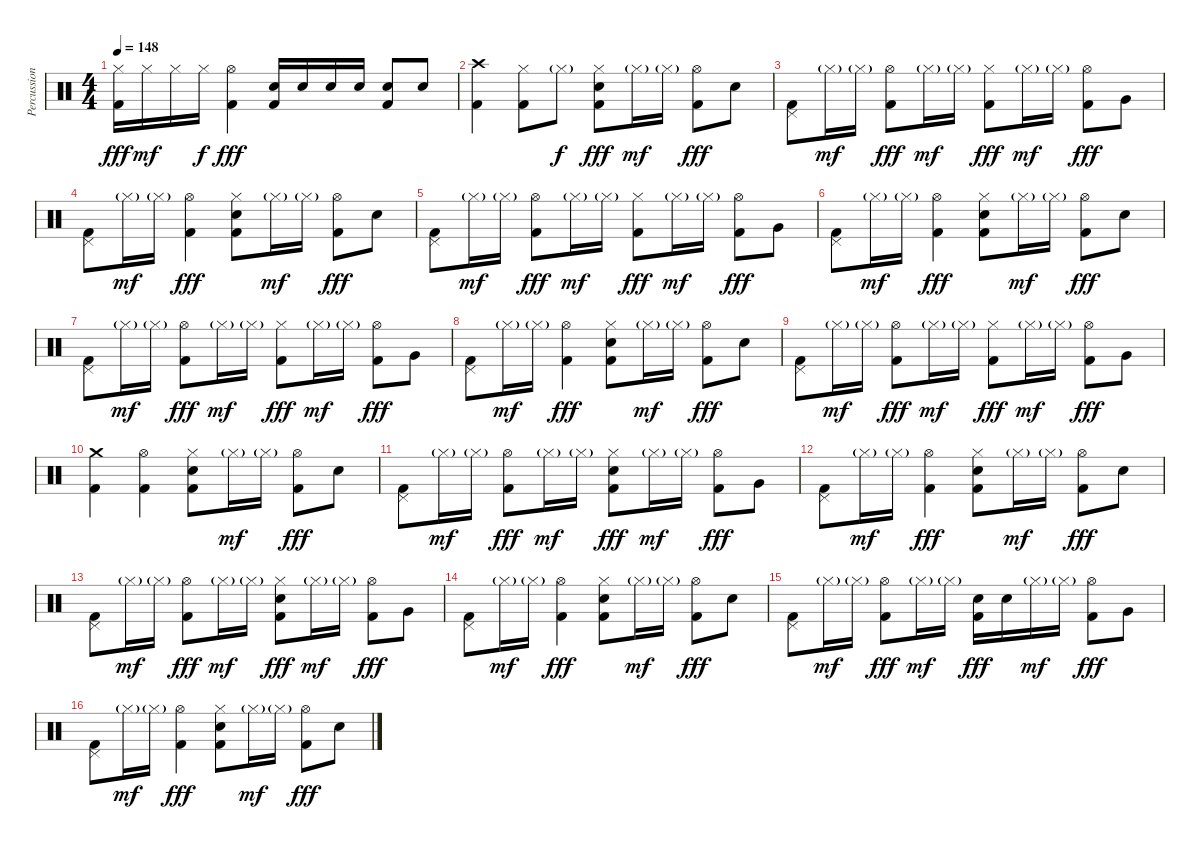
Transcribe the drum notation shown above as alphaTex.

\track ("Percussion" "Percussion") {instrument percussion}
\staff {score}
\articulation defaults
\ts (4 4)
\tempo 148
\clef neutral
\ks c
("Hi-Hat (closed)" "Kick (hit) 2").16{dy fff} "Hi-Hat (closed)".16{dy mf} "Hi-Hat (closed)".16 "Hi-Hat (closed)".16{dy f} ("Hi-Hat (open)" "Kick (hit) 2").4{dy fff} ("Kick (hit) 2" "Electric Snare (hit)").16 "Electric Snare (hit)".16 "Electric Snare (hit)".16 "Electric Snare (hit)".16 ("Kick (hit) 2" "Electric Snare (hit)").8 "Electric Snare (hit)".8 |
("Crash high (hit)" "Kick (hit) 2").4 ("Hi-Hat (closed)" "Kick (hit) 2").8 "Hi-Hat (closed)"{g}.8{dy f} ("Hi-Hat (closed)" "Kick (hit) 2" "Electric Snare (hit)").8{dy fff} "Hi-Hat (closed)"{g}.16{dy mf} "Hi-Hat (closed)"{g}.16 ("Hi-Hat (open)" "Kick (hit) 2").8{dy fff} "Electric Snare (hit)".8 |
("Pedal Hi-Hat (hit)" "Kick (hit) 2").8 "Hi-Hat (closed)"{g}.16{dy mf} "Hi-Hat (closed)"{g}.16 ("Hi-Hat (open)" "Kick (hit) 2").8{dy fff} "Hi-Hat (closed)"{g}.16{dy mf} "Hi-Hat (closed)"{g}.16 ("Hi-Hat (closed)" "Kick (hit) 2").8{dy fff} "Hi-Hat (closed)"{g}.16{dy mf} "Hi-Hat (closed)"{g}.16 ("Hi-Hat (open)" "Kick (hit) 2").8{dy fff} "Very Low Tom (hit)".8 |
("Pedal Hi-Hat (hit)" "Kick (hit) 2").8 "Hi-Hat (closed)"{g}.16{dy mf} "Hi-Hat (closed)"{g}.16 ("Hi-Hat (open)" "Kick (hit) 2").4{dy fff} ("Hi-Hat (closed)" "Kick (hit) 2" "Electric Snare (hit)").8 "Hi-Hat (closed)"{g}.16{dy mf} "Hi-Hat (closed)"{g}.16 ("Hi-Hat (open)" "Kick (hit) 2").8{dy fff} "Electric Snare (hit)".8 |
("Pedal Hi-Hat (hit)" "Kick (hit) 2").8 "Hi-Hat (closed)"{g}.16{dy mf} "Hi-Hat (closed)"{g}.16 ("Hi-Hat (open)" "Kick (hit) 2").8{dy fff} "Hi-Hat (closed)"{g}.16{dy mf} "Hi-Hat (closed)"{g}.16 ("Hi-Hat (closed)" "Kick (hit) 2").8{dy fff} "Hi-Hat (closed)"{g}.16{dy mf} "Hi-Hat (closed)"{g}.16 ("Hi-Hat (open)" "Kick (hit) 2").8{dy fff} "Very Low Tom (hit)".8 |
("Pedal Hi-Hat (hit)" "Kick (hit) 2").8 "Hi-Hat (closed)"{g}.16{dy mf} "Hi-Hat (closed)"{g}.16 ("Hi-Hat (open)" "Kick (hit) 2").4{dy fff} ("Hi-Hat (closed)" "Kick (hit) 2" "Electric Snare (hit)").8 "Hi-Hat (closed)"{g}.16{dy mf} "Hi-Hat (closed)"{g}.16 ("Hi-Hat (open)" "Kick (hit) 2").8{dy fff} "Electric Snare (hit)".8 |
("Pedal Hi-Hat (hit)" "Kick (hit) 2").8 "Hi-Hat (closed)"{g}.16{dy mf} "Hi-Hat (closed)"{g}.16 ("Hi-Hat (open)" "Kick (hit) 2").8{dy fff} "Hi-Hat (closed)"{g}.16{dy mf} "Hi-Hat (closed)"{g}.16 ("Hi-Hat (closed)" "Kick (hit) 2").8{dy fff} "Hi-Hat (closed)"{g}.16{dy mf} "Hi-Hat (closed)"{g}.16 ("Hi-Hat (open)" "Kick (hit) 2").8{dy fff} "Very Low Tom (hit)".8 |
("Pedal Hi-Hat (hit)" "Kick (hit) 2").8 "Hi-Hat (closed)"{g}.16{dy mf} "Hi-Hat (closed)"{g}.16 ("Hi-Hat (open)" "Kick (hit) 2").4{dy fff} ("Hi-Hat (closed)" "Kick (hit) 2" "Electric Snare (hit)").8 "Hi-Hat (closed)"{g}.16{dy mf} "Hi-Hat (closed)"{g}.16 ("Hi-Hat (open)" "Kick (hit) 2").8{dy fff} "Electric Snare (hit)".8 |
("Pedal Hi-Hat (hit)" "Kick (hit) 2").8 "Hi-Hat (closed)"{g}.16{dy mf} "Hi-Hat (closed)"{g}.16 ("Hi-Hat (open)" "Kick (hit) 2").8{dy fff} "Hi-Hat (closed)"{g}.16{dy mf} "Hi-Hat (closed)"{g}.16 ("Hi-Hat (closed)" "Kick (hit) 2").8{dy fff} "Hi-Hat (closed)"{g}.16{dy mf} "Hi-Hat (closed)"{g}.16 ("Hi-Hat (open)" "Kick (hit) 2").8{dy fff} "Very Low Tom (hit)".8 |
("Crash medium (hit)" "Kick (hit) 2").4 ("Hi-Hat (open)" "Kick (hit) 2").4 ("Hi-Hat (closed)" "Kick (hit) 2" "Electric Snare (hit)").8 "Hi-Hat (closed)"{g}.16{dy mf} "Hi-Hat (closed)"{g}.16 ("Hi-Hat (open)" "Kick (hit) 2").8{dy fff} "Electric Snare (hit)".8 |
("Pedal Hi-Hat (hit)" "Kick (hit) 2").8 "Hi-Hat (closed)"{g}.16{dy mf} "Hi-Hat (closed)"{g}.16 ("Hi-Hat (open)" "Kick (hit) 2").8{dy fff} "Hi-Hat (closed)"{g}.16{dy mf} "Hi-Hat (closed)"{g}.16 ("Hi-Hat (closed)" "Kick (hit) 2" "Electric Snare (hit)").8{dy fff} "Hi-Hat (closed)"{g}.16{dy mf} "Hi-Hat (closed)"{g}.16 ("Hi-Hat (open)" "Kick (hit) 2").8{dy fff} "Very Low Tom (hit)".8 |
("Pedal Hi-Hat (hit)" "Kick (hit) 2").8 "Hi-Hat (closed)"{g}.16{dy mf} "Hi-Hat (closed)"{g}.16 ("Hi-Hat (open)" "Kick (hit) 2").4{dy fff} ("Hi-Hat (closed)" "Kick (hit) 2" "Electric Snare (hit)").8 "Hi-Hat (closed)"{g}.16{dy mf} "Hi-Hat (closed)"{g}.16 ("Hi-Hat (open)" "Kick (hit) 2").8{dy fff} "Electric Snare (hit)".8 |
("Pedal Hi-Hat (hit)" "Kick (hit) 2").8 "Hi-Hat (closed)"{g}.16{dy mf} "Hi-Hat (closed)"{g}.16 ("Hi-Hat (open)" "Kick (hit) 2").8{dy fff} "Hi-Hat (closed)"{g}.16{dy mf} "Hi-Hat (closed)"{g}.16 ("Hi-Hat (closed)" "Kick (hit) 2" "Electric Snare (hit)").8{dy fff} "Hi-Hat (closed)"{g}.16{dy mf} "Hi-Hat (closed)"{g}.16 ("Hi-Hat (open)" "Kick (hit) 2").8{dy fff} "Very Low Tom (hit)".8 |
("Pedal Hi-Hat (hit)" "Kick (hit) 2").8 "Hi-Hat (closed)"{g}.16{dy mf} "Hi-Hat (closed)"{g}.16 ("Hi-Hat (open)" "Kick (hit) 2").4{dy fff} ("Hi-Hat (closed)" "Kick (hit) 2" "Electric Snare (hit)").8 "Hi-Hat (closed)"{g}.16{dy mf} "Hi-Hat (closed)"{g}.16 ("Hi-Hat (open)" "Kick (hit) 2").8{dy fff} "Electric Snare (hit)".8 |
("Pedal Hi-Hat (hit)" "Kick (hit) 2").8 "Hi-Hat (closed)"{g}.16{dy mf} "Hi-Hat (closed)"{g}.16 ("Hi-Hat (open)" "Kick (hit) 2").8{dy fff} "Hi-Hat (closed)"{g}.16{dy mf} "Hi-Hat (closed)"{g}.16 ("Kick (hit) 2" "Electric Snare (hit)").16{dy fff} "Electric Snare (hit)".16 "Hi-Hat (closed)"{g}.16{dy mf} "Hi-Hat (closed)"{g}.16 ("Hi-Hat (open)" "Kick (hit) 2").8{dy fff} "Very Low Tom (hit)".8 |
("Pedal Hi-Hat (hit)" "Kick (hit) 2").8 "Hi-Hat (closed)"{g}.16{dy mf} "Hi-Hat (closed)"{g}.16 ("Hi-Hat (open)" "Kick (hit) 2").4{dy fff} ("Hi-Hat (closed)" "Kick (hit) 2" "Electric Snare (hit)").8 "Hi-Hat (closed)"{g}.16{dy mf} "Hi-Hat (closed)"{g}.16 ("Hi-Hat (open)" "Kick (hit) 2").8{dy fff} "Electric Snare (hit)".8
